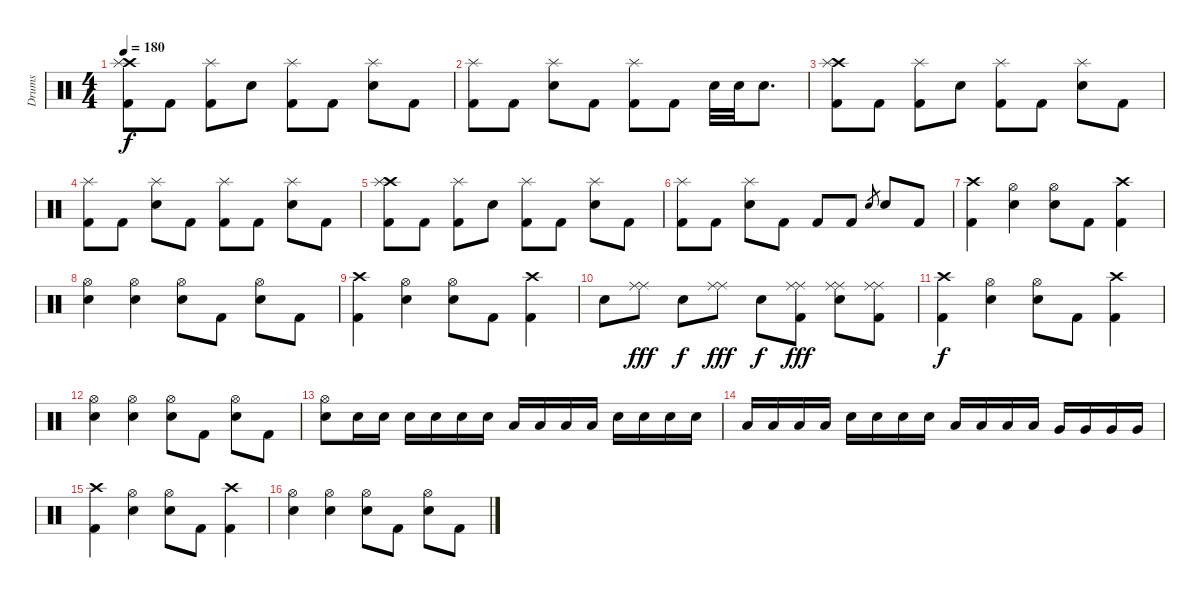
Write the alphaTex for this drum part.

\track ("Drums" "Drums") {instrument percussion}
\staff {score}
\articulation defaults
\ts (4 4)
\tempo 180
\clef neutral
\ks c
("Crash high (hit)" "Splash (hit)" "Kick (hit) 2").8{dy f} "Kick (hit) 2".8 ("Splash (hit)" "Kick (hit) 2").8 "Electric Snare (hit)".8 ("Splash (hit)" "Kick (hit) 2").8 "Kick (hit) 2".8 ("Splash (hit)" "Electric Snare (hit)").8 "Kick (hit) 2".8 |
("Splash (hit)" "Kick (hit) 2").8 "Kick (hit) 2".8 ("Splash (hit)" "Electric Snare (hit)").8 "Kick (hit) 2".8 ("Splash (hit)" "Kick (hit) 2").8 "Kick (hit) 2".8 "Electric Snare (hit)".32 "Electric Snare (hit)".32 "Electric Snare (hit)".8{d} |
("Crash high (hit)" "Splash (hit)" "Kick (hit) 2").8 "Kick (hit) 2".8 ("Splash (hit)" "Kick (hit) 2").8 "Electric Snare (hit)".8 ("Splash (hit)" "Kick (hit) 2").8 "Kick (hit) 2".8 ("Splash (hit)" "Electric Snare (hit)").8 "Kick (hit) 2".8 |
("Splash (hit)" "Kick (hit) 2").8 "Kick (hit) 2".8 ("Splash (hit)" "Electric Snare (hit)").8 "Kick (hit) 2".8 ("Splash (hit)" "Kick (hit) 2").8 "Kick (hit) 2".8 ("Splash (hit)" "Electric Snare (hit)").8 "Kick (hit) 2".8 |
("Crash high (hit)" "Splash (hit)" "Kick (hit) 2").8 "Kick (hit) 2".8 ("Splash (hit)" "Kick (hit) 2").8 "Electric Snare (hit)".8 ("Splash (hit)" "Kick (hit) 2").8 "Kick (hit) 2".8 ("Splash (hit)" "Electric Snare (hit)").8 "Kick (hit) 2".8 |
("Splash (hit)" "Kick (hit) 2").8 "Kick (hit) 2".8 ("Splash (hit)" "Electric Snare (hit)").8 "Kick (hit) 2".8 "Kick (hit) 2".8 "Kick (hit) 2".8 "Electric Snare (hit)"{sl}.8{gr} "Electric Snare (hit)".8 "Kick (hit) 2".8 |
("Crash high (hit)" "Kick (hit) 2").4 ("Hi-Hat (open)" "Electric Snare (hit)").4 ("Hi-Hat (open)" "Electric Snare (hit)").8 "Kick (hit) 2".8 ("Crash high (hit)" "Kick (hit) 2").4 |
("Hi-Hat (open)" "Electric Snare (hit)").4 ("Hi-Hat (open)" "Electric Snare (hit)").4 ("Hi-Hat (open)" "Electric Snare (hit)").8 "Kick (hit) 2".8 ("Hi-Hat (open)" "Electric Snare (hit)").8 "Kick (hit) 2".8 |
("Crash high (hit)" "Kick (hit) 2").4 ("Hi-Hat (open)" "Electric Snare (hit)").4 ("Hi-Hat (open)" "Electric Snare (hit)").8 "Kick (hit) 2".8 ("Crash high (hit)" "Kick (hit) 2").4 |
"Electric Snare (hit)".8 ("Ride (middle)" "Ride (middle)").8{dy fff} "Electric Snare (hit)".8{dy f} ("Ride (middle)" "Ride (middle)").8{dy fff} "Electric Snare (hit)".8{dy f} ("Ride (middle)" "Ride (middle)" "Kick (hit) 2").8{dy fff} ("Ride (middle)" "Ride (middle)" "Electric Snare (hit)").8 ("Ride (middle)" "Ride (middle)" "Kick (hit) 2").8 |
("Crash high (hit)" "Kick (hit) 2").4{dy f} ("Hi-Hat (open)" "Electric Snare (hit)").4 ("Hi-Hat (open)" "Electric Snare (hit)").8 "Kick (hit) 2".8 ("Crash high (hit)" "Kick (hit) 2").4 |
("Hi-Hat (open)" "Electric Snare (hit)").4 ("Hi-Hat (open)" "Electric Snare (hit)").4 ("Hi-Hat (open)" "Electric Snare (hit)").8 "Kick (hit) 2".8 ("Hi-Hat (open)" "Electric Snare (hit)").8 "Kick (hit) 2".8 |
("Hi-Hat (open)" "Electric Snare (hit)").8 "Electric Snare (hit)".16 "Electric Snare (hit)".16 "Electric Snare (hit)".16 "Electric Snare (hit)".16 "Electric Snare (hit)".16 "Electric Snare (hit)".16 "Low Tom (hit)".16 "Low Tom (hit)".16 "Low Tom (hit)".16 "Low Tom (hit)".16 "Electric Snare (hit)".16 "Electric Snare (hit)".16 "Electric Snare (hit)".16 "Electric Snare (hit)".16 |
"Low Tom (hit)".16 "Low Tom (hit)".16 "Low Tom (hit)".16 "Low Tom (hit)".16 "Electric Snare (hit)".16 "Electric Snare (hit)".16 "Electric Snare (hit)".16 "Electric Snare (hit)".16 "Low Tom (hit)".16 "Low Tom (hit)".16 "Low Tom (hit)".16 "Low Tom (hit)".16 "Very Low Tom (hit)".16 "Very Low Tom (hit)".16 "Very Low Tom (hit)".16 "Very Low Tom (hit)".16 |
("Crash high (hit)" "Kick (hit) 2").4 ("Hi-Hat (open)" "Electric Snare (hit)").4 ("Hi-Hat (open)" "Electric Snare (hit)").8 "Kick (hit) 2".8 ("Crash high (hit)" "Kick (hit) 2").4 |
("Hi-Hat (open)" "Electric Snare (hit)").4 ("Hi-Hat (open)" "Electric Snare (hit)").4 ("Hi-Hat (open)" "Electric Snare (hit)").8 "Kick (hit) 2".8 ("Hi-Hat (open)" "Electric Snare (hit)").8 "Kick (hit) 2".8
